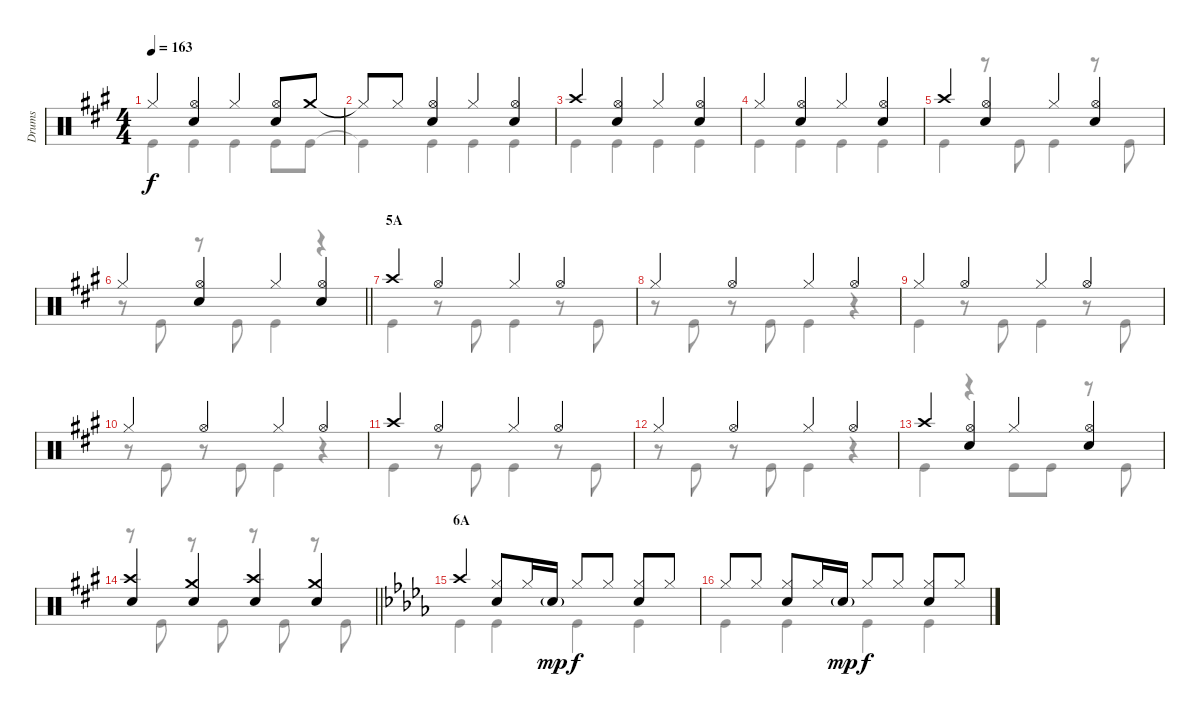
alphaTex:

\track ("Drums" "Drums") {instrument percussion}
\staff {score}
\articulation defaults
\voice
\ts (4 4)
\tempo 163
\clef neutral
\ks a "Hi-Hat (closed)".4{dy f}
("Hi-Hat (open)" "Snare (hit) 2").4 "Hi-Hat (closed)".4 ("Hi-Hat (open)" "Snare (hit) 2").8 "Crash medium (hit)".8 |
"Hi-Hat (closed)"{t}.8 "Hi-Hat (closed)".8 ("Hi-Hat (open)" "Snare (hit) 2").4 "Hi-Hat (closed)".4 ("Hi-Hat (open)" "Snare (hit) 2").4 |
"Crash high (hit)".4 ("Hi-Hat (open)" "Snare (hit) 2").4 "Hi-Hat (closed)".4 ("Hi-Hat (open)" "Snare (hit) 2").4 |
"Hi-Hat (closed)".4 ("Hi-Hat (open)" "Snare (hit) 2").4 "Hi-Hat (closed)".4 ("Hi-Hat (open)" "Snare (hit) 2").4 |
"Crash high (hit)".4 ("Hi-Hat (open)" "Snare (hit) 2").4 "Hi-Hat (closed)".4 ("Hi-Hat (open)" "Snare (hit) 2").4 |
\barLineRight lightlight "Hi-Hat (closed)".4
("Hi-Hat (open)" "Snare (hit) 2").4 "Hi-Hat (closed)".4 ("Hi-Hat (open)" "Snare (hit) 2").4 |
\section ("" "5A")
"Crash high (hit)".4 "Hi-Hat (open)".4 "Hi-Hat (closed)".4 "Hi-Hat (open)".4 |
"Hi-Hat (closed)".4 "Hi-Hat (open)".4 "Hi-Hat (closed)".4 "Hi-Hat (open)".4 |
"Hi-Hat (closed)".4 "Hi-Hat (open)".4 "Hi-Hat (closed)".4 "Hi-Hat (open)".4 |
"Hi-Hat (closed)".4 "Hi-Hat (open)".4 "Hi-Hat (closed)".4 "Hi-Hat (open)".4 |
"Crash high (hit)".4 "Hi-Hat (open)".4 "Hi-Hat (closed)".4 "Hi-Hat (open)".4 |
"Hi-Hat (closed)".4 "Hi-Hat (open)".4 "Hi-Hat (closed)".4 "Hi-Hat (open)".4 |
"Crash high (hit)".4 ("Hi-Hat (open)" "Snare (hit) 2").4 "Hi-Hat (closed)".4 ("Hi-Hat (open)" "Snare (hit) 2").4 |
\barLineRight lightlight
("Crash high (hit)" "Snare (hit) 2").4 ("Crash medium (hit)" "Snare (hit) 2").4 ("Crash high (hit)" "Snare (hit) 2").4 ("Crash medium (hit)" "Snare (hit) 2").4 |
\section ("" "6A")
\ks db "Crash high (hit)".4
("Hi-Hat (closed)" "Snare (hit) 2").8 "Hi-Hat (closed)".16 "Snare (hit) 2"{g}.16{dy mp} "Hi-Hat (closed)".8{dy f} "Hi-Hat (closed)".8 ("Hi-Hat (closed)" "Snare (hit) 2").8 "Hi-Hat (closed)".8 |
"Hi-Hat (closed)".8 "Hi-Hat (closed)".8 ("Hi-Hat (closed)" "Snare (hit) 2").8 "Hi-Hat (closed)".16 "Snare (hit) 2"{g}.16{dy mp} "Hi-Hat (closed)".8{dy f} "Hi-Hat (closed)".8 ("Hi-Hat (closed)" "Snare (hit) 2").8 "Hi-Hat (closed)".8
\voice
\clef neutral
\ottava regular
\simile none
\ks a "Kick (hit)".4{dy f} "Kick (hit)".4 "Kick (hit)".4 "Kick (hit)".8 "Kick (hit)".8
|
"Kick (hit)"{t}.4 "Kick (hit)".4 "Kick (hit)".4 "Kick (hit)".4 |
"Kick (hit)".4 "Kick (hit)".4 "Kick (hit)".4 "Kick (hit)".4 |
"Kick (hit)".4 "Kick (hit)".4 "Kick (hit)".4 "Kick (hit)".4 |
"Kick (hit)".4 r.8 "Kick (hit)".8 "Kick (hit)".4 r.8 "Kick (hit)".8 |
\barLineRight lightlight
r.8 "Kick (hit)".8 r.8 "Kick (hit)".8 "Kick (hit)".4 r.4 |
"Kick (hit)".4 r.8 "Kick (hit)".8 "Kick (hit)".4 r.8 "Kick (hit)".8 |
r.8 "Kick (hit)".8 r.8 "Kick (hit)".8 "Kick (hit)".4 r.4 |
"Kick (hit)".4 r.8 "Kick (hit)".8 "Kick (hit)".4 r.8 "Kick (hit)".8 |
r.8 "Kick (hit)".8 r.8 "Kick (hit)".8 "Kick (hit)".4 r.4 |
"Kick (hit)".4 r.8 "Kick (hit)".8 "Kick (hit)".4 r.8 "Kick (hit)".8 |
r.8 "Kick (hit)".8 r.8 "Kick (hit)".8 "Kick (hit)".4 r.4 |
"Kick (hit)".4 r.4 "Kick (hit)".8 "Kick (hit)".8 r.8 "Kick (hit)".8 |
\barLineRight lightlight
r.8 "Kick (hit)".8 r.8 "Kick (hit)".8 r.8 "Kick (hit)".8 r.8 "Kick (hit)".8 |
\ks db "Kick (hit)".4 "Kick (hit)".4 "Kick (hit)".4 "Kick (hit)".4
|
"Kick (hit)".4 "Kick (hit)".4 "Kick (hit)".4 "Kick (hit)".4
